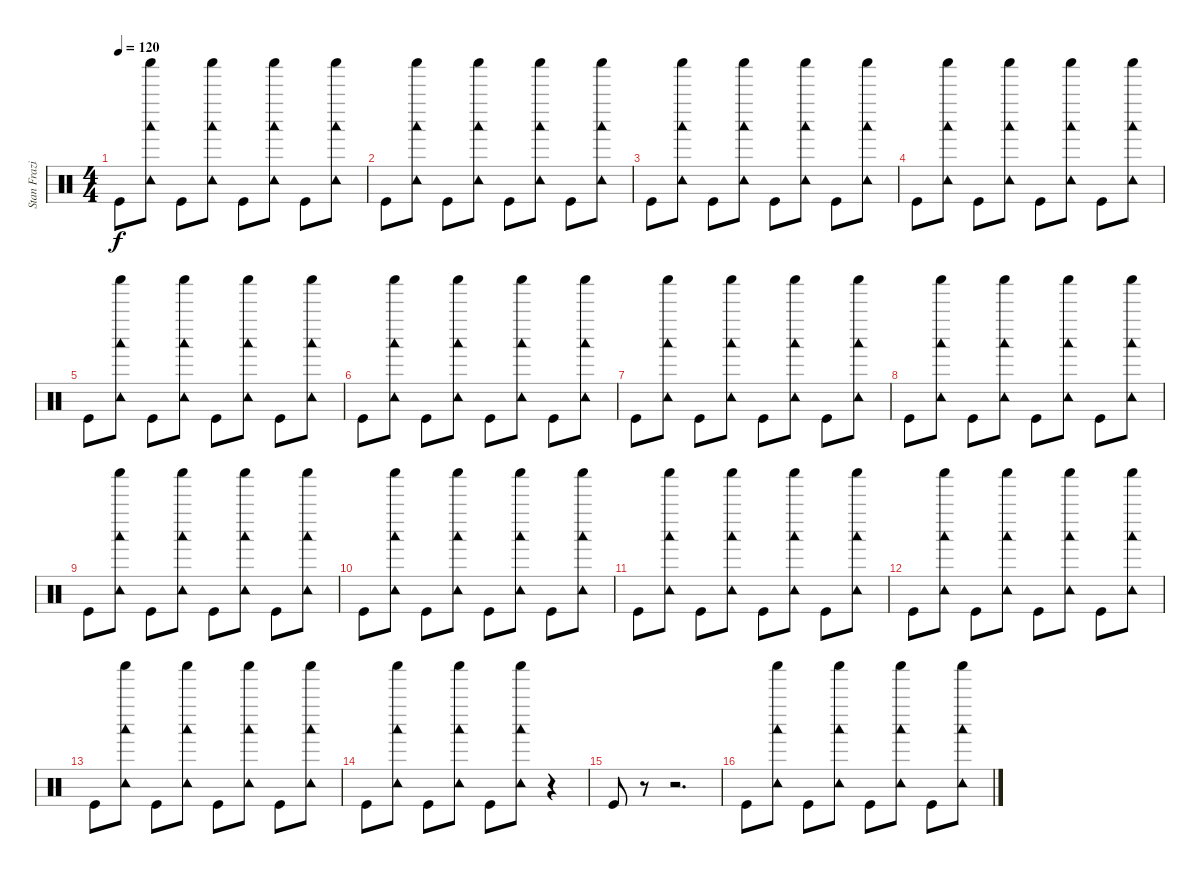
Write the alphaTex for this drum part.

\track ("Stan Frazier - Drums" "Stan Frazi") {instrument percussion}
\staff {score}
\articulation defaults
\ts (4 4)
\tempo 120
\clef neutral
\ks c "Kick (hit)".8{dy f}
("Shaker (hit)" "Woodblock low (hit)" "Tambourine (hit)").8 "Kick (hit)".8 ("Shaker (hit)" "Woodblock low (hit)" "Tambourine (hit)").8 "Kick (hit)".8 ("Shaker (hit)" "Woodblock low (hit)" "Tambourine (hit)").8 "Kick (hit)".8 ("Shaker (hit)" "Woodblock low (hit)" "Tambourine (hit)").8 |
"Kick (hit)".8 ("Shaker (hit)" "Woodblock low (hit)" "Tambourine (hit)").8 "Kick (hit)".8 ("Shaker (hit)" "Woodblock low (hit)" "Tambourine (hit)").8 "Kick (hit)".8 ("Shaker (hit)" "Woodblock low (hit)" "Tambourine (hit)").8 "Kick (hit)".8 ("Shaker (hit)" "Woodblock low (hit)" "Tambourine (hit)").8 |
"Kick (hit)".8 ("Shaker (hit)" "Woodblock low (hit)" "Tambourine (hit)").8 "Kick (hit)".8 ("Shaker (hit)" "Woodblock low (hit)" "Tambourine (hit)").8 "Kick (hit)".8 ("Shaker (hit)" "Woodblock low (hit)" "Tambourine (hit)").8 "Kick (hit)".8 ("Shaker (hit)" "Woodblock low (hit)" "Tambourine (hit)").8 |
"Kick (hit)".8 ("Shaker (hit)" "Woodblock low (hit)" "Tambourine (hit)").8 "Kick (hit)".8 ("Shaker (hit)" "Woodblock low (hit)" "Tambourine (hit)").8 "Kick (hit)".8 ("Shaker (hit)" "Woodblock low (hit)" "Tambourine (hit)").8 "Kick (hit)".8 ("Shaker (hit)" "Woodblock low (hit)" "Tambourine (hit)").8 |
"Kick (hit)".8 ("Shaker (hit)" "Woodblock low (hit)" "Tambourine (hit)").8 "Kick (hit)".8 ("Shaker (hit)" "Woodblock low (hit)" "Tambourine (hit)").8 "Kick (hit)".8 ("Shaker (hit)" "Woodblock low (hit)" "Tambourine (hit)").8 "Kick (hit)".8 ("Shaker (hit)" "Woodblock low (hit)" "Tambourine (hit)").8 |
"Kick (hit)".8 ("Shaker (hit)" "Woodblock low (hit)" "Tambourine (hit)").8 "Kick (hit)".8 ("Shaker (hit)" "Woodblock low (hit)" "Tambourine (hit)").8 "Kick (hit)".8 ("Shaker (hit)" "Woodblock low (hit)" "Tambourine (hit)").8 "Kick (hit)".8 ("Shaker (hit)" "Woodblock low (hit)" "Tambourine (hit)").8 |
"Kick (hit)".8 ("Shaker (hit)" "Woodblock low (hit)" "Tambourine (hit)").8 "Kick (hit)".8 ("Shaker (hit)" "Woodblock low (hit)" "Tambourine (hit)").8 "Kick (hit)".8 ("Shaker (hit)" "Woodblock low (hit)" "Tambourine (hit)").8 "Kick (hit)".8 ("Shaker (hit)" "Woodblock low (hit)" "Tambourine (hit)").8 |
"Kick (hit)".8 ("Shaker (hit)" "Woodblock low (hit)" "Tambourine (hit)").8 "Kick (hit)".8 ("Shaker (hit)" "Woodblock low (hit)" "Tambourine (hit)").8 "Kick (hit)".8 ("Shaker (hit)" "Woodblock low (hit)" "Tambourine (hit)").8 "Kick (hit)".8 ("Shaker (hit)" "Woodblock low (hit)" "Tambourine (hit)").8 |
"Kick (hit)".8 ("Shaker (hit)" "Woodblock low (hit)" "Tambourine (hit)").8 "Kick (hit)".8 ("Shaker (hit)" "Woodblock low (hit)" "Tambourine (hit)").8 "Kick (hit)".8 ("Shaker (hit)" "Woodblock low (hit)" "Tambourine (hit)").8 "Kick (hit)".8 ("Shaker (hit)" "Woodblock low (hit)" "Tambourine (hit)").8 |
"Kick (hit)".8 ("Shaker (hit)" "Woodblock low (hit)" "Tambourine (hit)").8 "Kick (hit)".8 ("Shaker (hit)" "Woodblock low (hit)" "Tambourine (hit)").8 "Kick (hit)".8 ("Shaker (hit)" "Woodblock low (hit)" "Tambourine (hit)").8 "Kick (hit)".8 ("Shaker (hit)" "Woodblock low (hit)" "Tambourine (hit)").8 |
"Kick (hit)".8 ("Shaker (hit)" "Woodblock low (hit)" "Tambourine (hit)").8 "Kick (hit)".8 ("Shaker (hit)" "Woodblock low (hit)" "Tambourine (hit)").8 "Kick (hit)".8 ("Shaker (hit)" "Woodblock low (hit)" "Tambourine (hit)").8 "Kick (hit)".8 ("Shaker (hit)" "Woodblock low (hit)" "Tambourine (hit)").8 |
"Kick (hit)".8 ("Shaker (hit)" "Woodblock low (hit)" "Tambourine (hit)").8 "Kick (hit)".8 ("Shaker (hit)" "Woodblock low (hit)" "Tambourine (hit)").8 "Kick (hit)".8 ("Shaker (hit)" "Woodblock low (hit)" "Tambourine (hit)").8 "Kick (hit)".8 ("Shaker (hit)" "Woodblock low (hit)" "Tambourine (hit)").8 |
"Kick (hit)".8 ("Shaker (hit)" "Woodblock low (hit)" "Tambourine (hit)").8 "Kick (hit)".8 ("Shaker (hit)" "Woodblock low (hit)" "Tambourine (hit)").8 "Kick (hit)".8 ("Shaker (hit)" "Woodblock low (hit)" "Tambourine (hit)").8 "Kick (hit)".8 ("Shaker (hit)" "Woodblock low (hit)" "Tambourine (hit)").8 |
"Kick (hit)".8 ("Shaker (hit)" "Woodblock low (hit)" "Tambourine (hit)").8 "Kick (hit)".8 ("Shaker (hit)" "Woodblock low (hit)" "Tambourine (hit)").8 "Kick (hit)".8 ("Shaker (hit)" "Woodblock low (hit)" "Tambourine (hit)").8 r.4 |
"Kick (hit)".8 r.8 r.2{d} |
"Kick (hit)".8 ("Shaker (hit)" "Woodblock low (hit)" "Tambourine (hit)").8 "Kick (hit)".8 ("Shaker (hit)" "Woodblock low (hit)" "Tambourine (hit)").8 "Kick (hit)".8 ("Shaker (hit)" "Woodblock low (hit)" "Tambourine (hit)").8 "Kick (hit)".8 ("Shaker (hit)" "Woodblock low (hit)" "Tambourine (hit)").8
